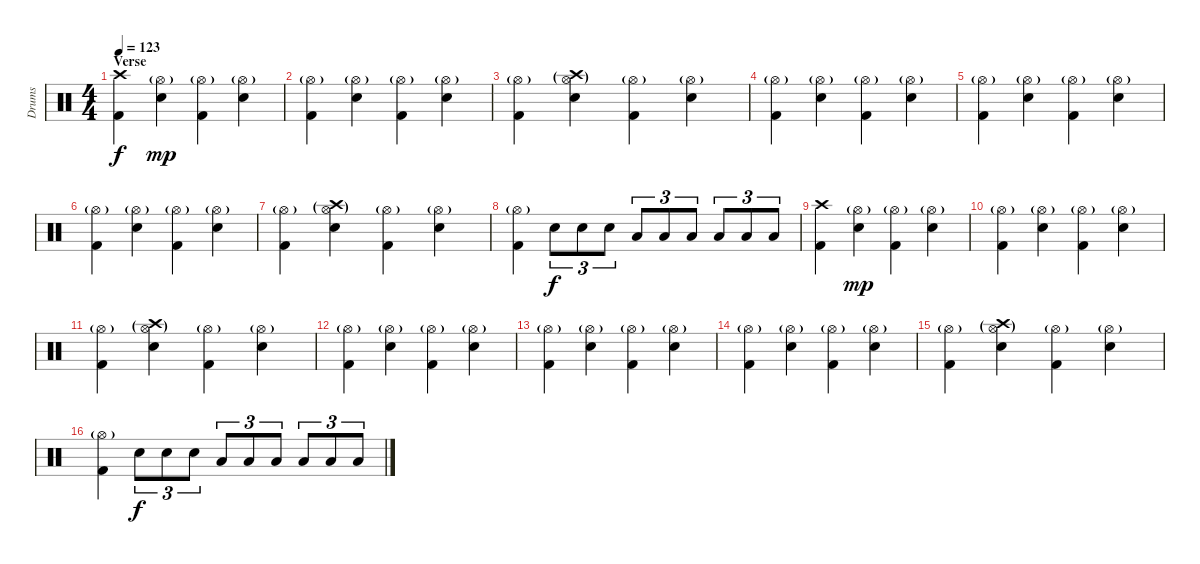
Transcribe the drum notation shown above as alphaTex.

\track ("Drums" "Drums") {instrument percussion}
\staff {score}
\articulation defaults
\ts (4 4)
\section ("" "Verse")
\tempo 123
\clef neutral
\ks c
("Crash high (hit)" "Kick (hit) 2").4{dy f} ("Electric Snare (hit)" "Hi-Hat (open)"{g}).4{dy mp} ("Hi-Hat (open)"{g} "Kick (hit) 2").4 ("Electric Snare (hit)" "Hi-Hat (open)"{g}).4 |
("Hi-Hat (open)"{g} "Kick (hit) 2").4 ("Electric Snare (hit)" "Hi-Hat (open)"{g}).4 ("Hi-Hat (open)"{g} "Kick (hit) 2").4 ("Electric Snare (hit)" "Hi-Hat (open)"{g}).4 |
("Hi-Hat (open)"{g} "Kick (hit) 2").4 ("Electric Snare (hit)" "Hi-Hat (open)"{g} "Crash high (hit)"{g}).4 ("Hi-Hat (open)"{g} "Kick (hit) 2").4 ("Electric Snare (hit)" "Hi-Hat (open)"{g}).4 |
("Hi-Hat (open)"{g} "Kick (hit) 2").4 ("Electric Snare (hit)" "Hi-Hat (open)"{g}).4 ("Hi-Hat (open)"{g} "Kick (hit) 2").4 ("Electric Snare (hit)" "Hi-Hat (open)"{g}).4 |
("Hi-Hat (open)"{g} "Kick (hit) 2").4 ("Electric Snare (hit)" "Hi-Hat (open)"{g}).4 ("Hi-Hat (open)"{g} "Kick (hit) 2").4 ("Electric Snare (hit)" "Hi-Hat (open)"{g}).4 |
("Hi-Hat (open)"{g} "Kick (hit) 2").4 ("Electric Snare (hit)" "Hi-Hat (open)"{g}).4 ("Hi-Hat (open)"{g} "Kick (hit) 2").4 ("Electric Snare (hit)" "Hi-Hat (open)"{g}).4 |
("Hi-Hat (open)"{g} "Kick (hit) 2").4 ("Electric Snare (hit)" "Hi-Hat (open)"{g} "Crash high (hit)"{g}).4 ("Hi-Hat (open)"{g} "Kick (hit) 2").4 ("Electric Snare (hit)" "Hi-Hat (open)"{g}).4 |
("Hi-Hat (open)"{g} "Kick (hit) 2").4 "Electric Snare (hit)".8{tu (3 2) dy f} "Electric Snare (hit)".8{tu (3 2)} "Electric Snare (hit)".8{tu (3 2)} "Low Tom (hit)".8{tu (3 2)} "Low Tom (hit)".8{tu (3 2)} "Low Tom (hit)".8{tu (3 2)} "Low Floor Tom (hit)".8{tu (3 2)} "Low Floor Tom (hit)".8{tu (3 2)} "Low Floor Tom (hit)".8{tu (3 2)} |
("Crash high (hit)" "Kick (hit) 2").4 ("Electric Snare (hit)" "Hi-Hat (open)"{g}).4{dy mp} ("Hi-Hat (open)"{g} "Kick (hit) 2").4 ("Electric Snare (hit)" "Hi-Hat (open)"{g}).4 |
("Hi-Hat (open)"{g} "Kick (hit) 2").4 ("Electric Snare (hit)" "Hi-Hat (open)"{g}).4 ("Hi-Hat (open)"{g} "Kick (hit) 2").4 ("Electric Snare (hit)" "Hi-Hat (open)"{g}).4 |
("Hi-Hat (open)"{g} "Kick (hit) 2").4 ("Electric Snare (hit)" "Hi-Hat (open)"{g} "Crash high (hit)"{g}).4 ("Hi-Hat (open)"{g} "Kick (hit) 2").4 ("Electric Snare (hit)" "Hi-Hat (open)"{g}).4 |
("Hi-Hat (open)"{g} "Kick (hit) 2").4 ("Electric Snare (hit)" "Hi-Hat (open)"{g}).4 ("Hi-Hat (open)"{g} "Kick (hit) 2").4 ("Electric Snare (hit)" "Hi-Hat (open)"{g}).4 |
("Hi-Hat (open)"{g} "Kick (hit) 2").4 ("Electric Snare (hit)" "Hi-Hat (open)"{g}).4 ("Hi-Hat (open)"{g} "Kick (hit) 2").4 ("Electric Snare (hit)" "Hi-Hat (open)"{g}).4 |
("Hi-Hat (open)"{g} "Kick (hit) 2").4 ("Electric Snare (hit)" "Hi-Hat (open)"{g}).4 ("Hi-Hat (open)"{g} "Kick (hit) 2").4 ("Electric Snare (hit)" "Hi-Hat (open)"{g}).4 |
("Hi-Hat (open)"{g} "Kick (hit) 2").4 ("Electric Snare (hit)" "Hi-Hat (open)"{g} "Crash high (hit)"{g}).4 ("Hi-Hat (open)"{g} "Kick (hit) 2").4 ("Electric Snare (hit)" "Hi-Hat (open)"{g}).4 |
("Hi-Hat (open)"{g} "Kick (hit) 2").4 "Electric Snare (hit)".8{tu (3 2) dy f} "Electric Snare (hit)".8{tu (3 2)} "Electric Snare (hit)".8{tu (3 2)} "Low Tom (hit)".8{tu (3 2)} "Low Tom (hit)".8{tu (3 2)} "Low Tom (hit)".8{tu (3 2)} "Low Floor Tom (hit)".8{tu (3 2)} "Low Floor Tom (hit)".8{tu (3 2)} "Low Floor Tom (hit)".8{tu (3 2)}
